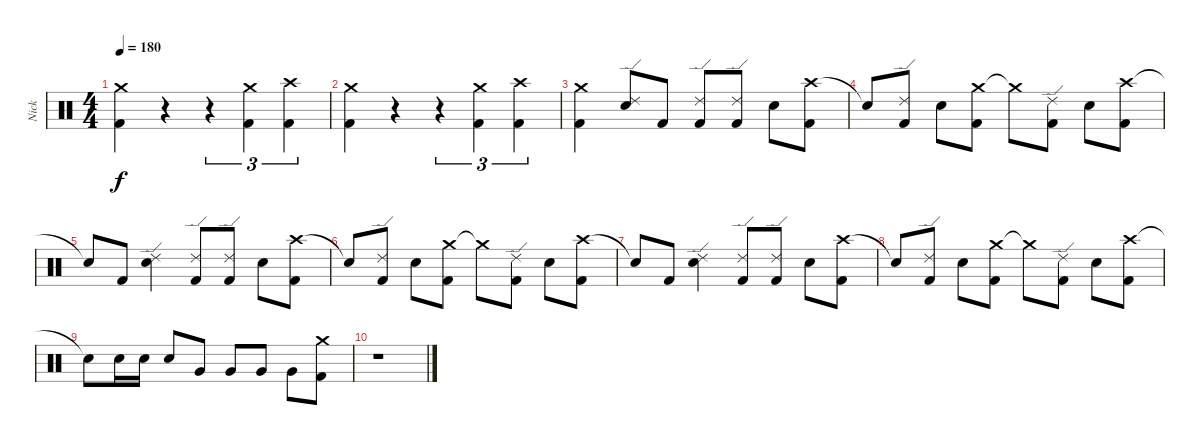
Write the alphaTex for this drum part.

\track ("Nick" "Nick") {instrument percussion}
\staff {score}
\articulation defaults
\ts (4 4)
\tempo 180
\clef neutral
\ks c
("Crash medium (hit)" "Kick (hit) 2").4{dy f} r.4 r.4{tu (3 2)} ("Crash medium (hit)" "Kick (hit) 2").4{tu (3 2)} ("Crash high (hit)" "Kick (hit) 2").4{tu (3 2)} |
("Crash medium (hit)" "Kick (hit) 2").4 r.4 r.4{tu (3 2)} ("Crash medium (hit)" "Kick (hit) 2").4{tu (3 2)} ("Crash high (hit)" "Kick (hit) 2").4{tu (3 2)} |
("Crash medium (hit)" "Kick (hit) 2").4 ("Ride (edge) 2" "Electric Snare (hit)").8 "Kick (hit) 2".8 ("Ride (edge) 2" "Kick (hit) 2").8 ("Ride (edge) 2" "Kick (hit) 2").8 "Electric Snare (hit)".8 ("Crash high (hit)" "Kick (hit) 2").8 |
"Snare (hit)"{t}.8 ("Ride (edge) 2" "Kick (hit) 2").8 "Electric Snare (hit)".8 ("Crash medium (hit)" "Kick (hit) 2").8 "Crash medium (hit)"{t}.8 ("Ride (edge) 2" "Kick (hit) 2").8 "Electric Snare (hit)".8 ("Crash high (hit)" "Kick (hit) 2").8 |
"Snare (hit)"{t}.8 "Kick (hit) 2".8 ("Ride (edge) 2" "Electric Snare (hit)").4 ("Ride (edge) 2" "Kick (hit) 2").8 ("Ride (edge) 2" "Kick (hit) 2").8 "Electric Snare (hit)".8 ("Crash high (hit)" "Kick (hit) 2").8 |
"Snare (hit)"{t}.8 ("Ride (edge) 2" "Kick (hit) 2").8 "Electric Snare (hit)".8 ("Crash medium (hit)" "Kick (hit) 2").8 "Crash medium (hit)"{t}.8 ("Ride (edge) 2" "Kick (hit) 2").8 "Electric Snare (hit)".8 ("Crash high (hit)" "Kick (hit) 2").8 |
"Snare (hit)"{t}.8 "Kick (hit) 2".8 ("Ride (edge) 2" "Electric Snare (hit)").4 ("Ride (edge) 2" "Kick (hit) 2").8 ("Ride (edge) 2" "Kick (hit) 2").8 "Electric Snare (hit)".8 ("Crash high (hit)" "Kick (hit) 2").8 |
"Snare (hit)"{t}.8 ("Ride (edge) 2" "Kick (hit) 2").8 "Electric Snare (hit)".8 ("Crash medium (hit)" "Kick (hit) 2").8 "Crash medium (hit)"{t}.8 ("Ride (edge) 2" "Kick (hit) 2").8 "Electric Snare (hit)".8 ("Crash high (hit)" "Kick (hit) 2").8 |
"Snare (hit)"{t}.8 "Electric Snare (hit)".16 "Electric Snare (hit)".16 "Electric Snare (hit)".8 "Very Low Tom (hit)".8 "Very Low Tom (hit)".8 "Very Low Tom (hit)".8 "Very Low Tom (hit)".8 ("Crash medium (hit)" "Kick (hit) 2").8 |
r.1
